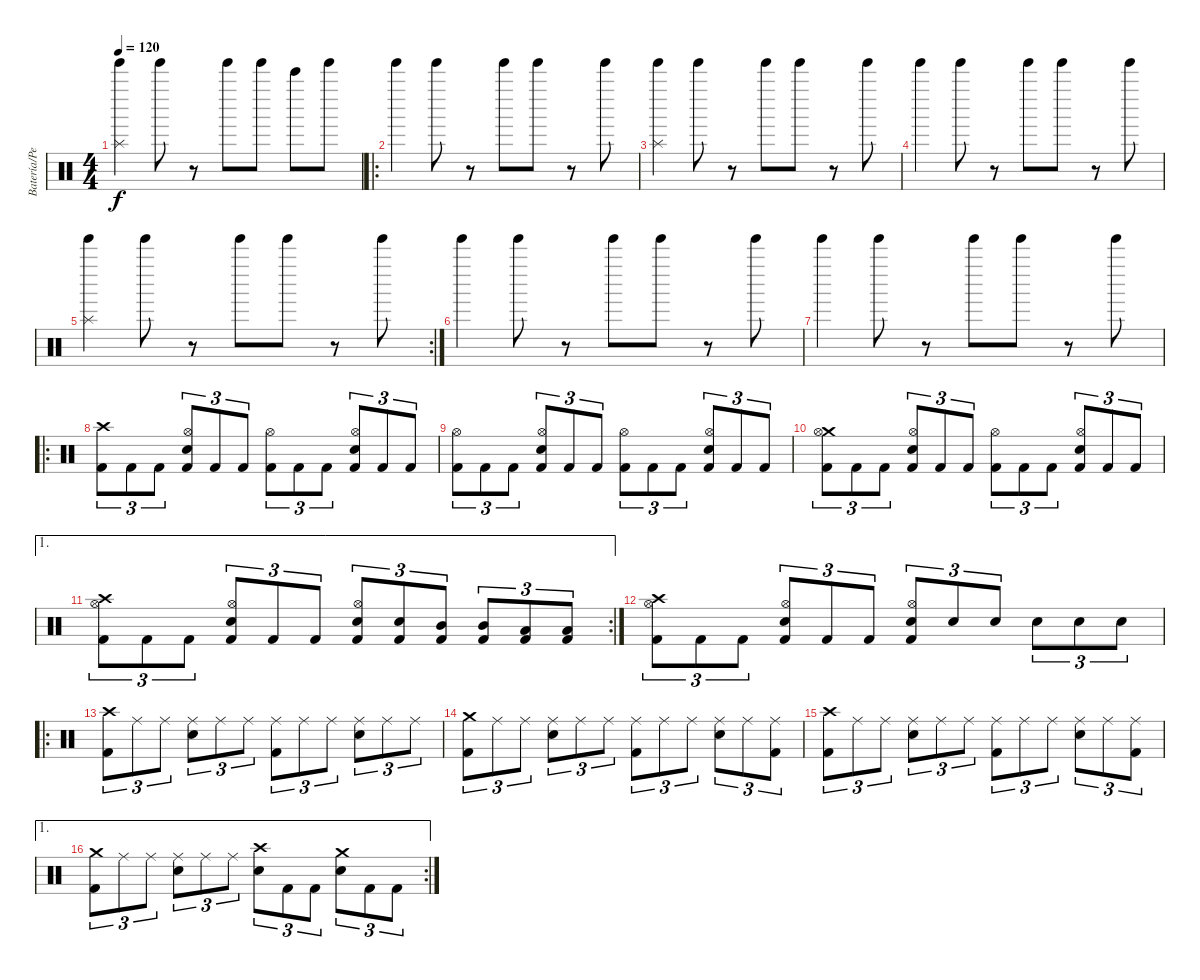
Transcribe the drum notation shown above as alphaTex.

\track ("Batería/Perc." "Batería/Pe") {instrument percussion}
\staff {score}
\articulation defaults
\ts (4 4)
\tempo 120
\clef neutral
\ks c
("Splash (hit)" "Tinkle Bell (hit)").4{dy f} "Tinkle Bell (hit)".8 r.8 "Tinkle Bell (hit)".8 "Tinkle Bell (hit)".8 "Bell Tree (hit)".8 "Tinkle Bell (hit)".8 |
\ro "Tinkle Bell (hit)".4 "Tinkle Bell (hit)".8
r.8 "Tinkle Bell (hit)".8 "Tinkle Bell (hit)".8 r.8 "Tinkle Bell (hit)".8 |
("Splash (hit)" "Tinkle Bell (hit)").4 "Tinkle Bell (hit)".8 r.8 "Tinkle Bell (hit)".8 "Tinkle Bell (hit)".8 r.8 "Tinkle Bell (hit)".8 |
"Tinkle Bell (hit)".4 "Tinkle Bell (hit)".8 r.8 "Tinkle Bell (hit)".8 "Tinkle Bell (hit)".8 r.8 "Tinkle Bell (hit)".8 |
\rc 2
("Splash (hit)" "Tinkle Bell (hit)").4 "Tinkle Bell (hit)".8 r.8 "Tinkle Bell (hit)".8 "Tinkle Bell (hit)".8 r.8 "Tinkle Bell (hit)".8 |
"Tinkle Bell (hit)".4 "Tinkle Bell (hit)".8 r.8 "Tinkle Bell (hit)".8 "Tinkle Bell (hit)".8 r.8 "Tinkle Bell (hit)".8 |
"Tinkle Bell (hit)".4 "Tinkle Bell (hit)".8 r.8 "Tinkle Bell (hit)".8 "Tinkle Bell (hit)".8 r.8 "Tinkle Bell (hit)".8 |
\ro
("Crash high (hit)" "Kick (hit) 2").8{tu (3 2) volume 14} "Kick (hit) 2".8{tu (3 2)} "Kick (hit) 2".8{tu (3 2)} ("Hi-Hat (open)" "Kick (hit) 2" "Snare (hit) 2").8{tu (3 2)} "Kick (hit) 2".8{tu (3 2)} "Kick (hit) 2".8{tu (3 2)} ("Hi-Hat (open)" "Kick (hit) 2").8{tu (3 2)} "Kick (hit) 2".8{tu (3 2)} "Kick (hit) 2".8{tu (3 2)} ("Hi-Hat (open)" "Kick (hit) 2" "Snare (hit) 2").8{tu (3 2)} "Kick (hit) 2".8{tu (3 2)} "Kick (hit) 2".8{tu (3 2)} |
("Hi-Hat (open)" "Kick (hit) 2").8{tu (3 2) volume 14} "Kick (hit) 2".8{tu (3 2)} "Kick (hit) 2".8{tu (3 2)} ("Hi-Hat (open)" "Kick (hit) 2" "Snare (hit) 2").8{tu (3 2)} "Kick (hit) 2".8{tu (3 2)} "Kick (hit) 2".8{tu (3 2)} ("Hi-Hat (open)" "Kick (hit) 2").8{tu (3 2)} "Kick (hit) 2".8{tu (3 2)} "Kick (hit) 2".8{tu (3 2)} ("Hi-Hat (open)" "Kick (hit) 2" "Snare (hit) 2").8{tu (3 2)} "Kick (hit) 2".8{tu (3 2)} "Kick (hit) 2".8{tu (3 2)} |
("Crash medium (hit)" "Hi-Hat (open)" "Kick (hit) 2").8{tu (3 2) volume 14} "Kick (hit) 2".8{tu (3 2)} "Kick (hit) 2".8{tu (3 2)} ("Hi-Hat (open)" "Kick (hit) 2" "Snare (hit) 2").8{tu (3 2)} "Kick (hit) 2".8{tu (3 2)} "Kick (hit) 2".8{tu (3 2)} ("Hi-Hat (open)" "Kick (hit) 2").8{tu (3 2)} "Kick (hit) 2".8{tu (3 2)} "Kick (hit) 2".8{tu (3 2)} ("Hi-Hat (open)" "Kick (hit) 2" "Snare (hit) 2").8{tu (3 2)} "Kick (hit) 2".8{tu (3 2)} "Kick (hit) 2".8{tu (3 2)} |
\ae 1
\rc 2
("Crash high (hit)" "Hi-Hat (open)" "Kick (hit) 2").8{tu (3 2) volume 14} "Kick (hit) 2".8{tu (3 2)} "Kick (hit) 2".8{tu (3 2)} ("Hi-Hat (open)" "Kick (hit) 2" "Snare (hit) 2").8{tu (3 2)} "Kick (hit) 2".8{tu (3 2)} "Kick (hit) 2".8{tu (3 2)} ("Hi-Hat (open)" "Kick (hit) 2" "Snare (hit) 2").8{tu (3 2)} ("Kick (hit) 2" "Snare (hit) 2").8{tu (3 2)} ("Kick (hit) 2" "Mid Tom (hit)").8{tu (3 2)} ("Kick (hit) 2" "Mid Tom (hit)").8{tu (3 2)} ("Kick (hit) 2" "Low Tom (hit)").8{tu (3 2)} ("Kick (hit) 2" "Low Tom (hit)").8{tu (3 2)} |
("Crash high (hit)" "Hi-Hat (open)" "Kick (hit) 2").8{tu (3 2) volume 14} "Kick (hit) 2".8{tu (3 2)} "Kick (hit) 2".8{tu (3 2)} ("Hi-Hat (open)" "Kick (hit) 2" "Snare (hit) 2").8{tu (3 2)} "Kick (hit) 2".8{tu (3 2)} "Kick (hit) 2".8{tu (3 2)} ("Hi-Hat (open)" "Kick (hit) 2" "Snare (hit) 2").8{tu (3 2)} "Snare (hit) 2".8{tu (3 2)} "Snare (hit) 2".8{tu (3 2)} "Snare (hit) 2".8{tu (3 2)} "Snare (hit) 2".8{tu (3 2)} "Snare (hit) 2".8{tu (3 2)} |
\ro
("Crash high (hit)" "Kick (hit) 2").8{tu (3 2) volume 14} "Ride (middle)".8{tu (3 2)} "Ride (middle)".8{tu (3 2)} ("Ride (middle)" "Snare (hit) 2").8{tu (3 2)} "Ride (middle)".8{tu (3 2)} "Ride (middle)".8{tu (3 2)} ("Ride (middle)" "Kick (hit) 2").8{tu (3 2)} "Ride (middle)".8{tu (3 2)} "Ride (middle)".8{tu (3 2)} ("Ride (middle)" "Snare (hit) 2").8{tu (3 2)} "Ride (middle)".8{tu (3 2)} "Ride (middle)".8{tu (3 2)} |
("Crash medium (hit)" "Kick (hit) 2").8{tu (3 2) volume 14} "Ride (middle)".8{tu (3 2)} "Ride (middle)".8{tu (3 2)} ("Ride (middle)" "Snare (hit) 2").8{tu (3 2)} "Ride (middle)".8{tu (3 2)} "Ride (middle)".8{tu (3 2)} ("Ride (middle)" "Kick (hit) 2").8{tu (3 2)} "Ride (middle)".8{tu (3 2)} "Ride (middle)".8{tu (3 2)} ("Ride (middle)" "Snare (hit) 2").8{tu (3 2)} "Ride (middle)".8{tu (3 2)} ("Ride (middle)" "Kick (hit) 2").8{tu (3 2)} |
("Crash high (hit)" "Kick (hit) 2").8{tu (3 2) volume 14} "Ride (middle)".8{tu (3 2)} "Ride (middle)".8{tu (3 2)} ("Ride (middle)" "Snare (hit) 2").8{tu (3 2)} "Ride (middle)".8{tu (3 2)} "Ride (middle)".8{tu (3 2)} ("Ride (middle)" "Kick (hit) 2").8{tu (3 2)} "Ride (middle)".8{tu (3 2)} "Ride (middle)".8{tu (3 2)} ("Ride (middle)" "Snare (hit) 2").8{tu (3 2)} "Ride (middle)".8{tu (3 2)} ("Ride (middle)" "Kick (hit) 2").8{tu (3 2)} |
\ae 1
\rc 2
("Crash medium (hit)" "Kick (hit) 2").8{tu (3 2) volume 14} "Ride (middle)".8{tu (3 2)} "Ride (middle)".8{tu (3 2)} ("Ride (middle)" "Snare (hit) 2").8{tu (3 2)} "Ride (middle)".8{tu (3 2)} "Ride (middle)".8{tu (3 2)} ("Crash high (hit)" "Snare (hit) 2").8{tu (3 2)} "Kick (hit) 2".8{tu (3 2)} "Kick (hit) 2".8{tu (3 2)} ("Crash medium (hit)" "Snare (hit) 2").8{tu (3 2)} "Kick (hit) 2".8{tu (3 2)} "Kick (hit) 2".8{tu (3 2)}
